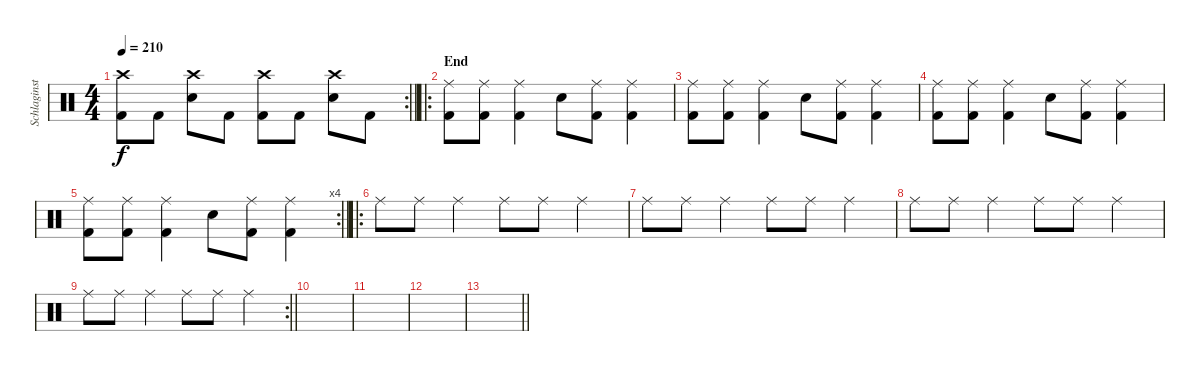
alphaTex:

\track ("Schlaginstrumente - Auswahl" "Schlaginst") {instrument percussion}
\staff {score}
\articulation defaults
\rc 2
\ts (4 4)
\tempo 210
\clef neutral
\barLineRight lightlight
\ks c
("Crash high (hit)" "Kick (hit) 2").8{dy f} "Kick (hit) 2".8 ("Crash high (hit)" "Snare (hit) 2").8 "Kick (hit) 2".8 ("Crash high (hit)" "Kick (hit) 2").8 "Kick (hit) 2".8 ("Crash high (hit)" "Snare (hit) 2").8 "Kick (hit) 2".8 |
\ro
\section ("" "End")
("Ride (middle)" "Kick (hit) 2").8 ("Ride (middle)" "Kick (hit) 2").8 ("Ride (middle)" "Kick (hit) 2").4 "Snare (hit) 2".8 ("Ride (middle)" "Kick (hit) 2").8 ("Ride (middle)" "Kick (hit) 2").4 |
("Ride (middle)" "Kick (hit) 2").8 ("Ride (middle)" "Kick (hit) 2").8 ("Ride (middle)" "Kick (hit) 2").4 "Snare (hit) 2".8 ("Ride (middle)" "Kick (hit) 2").8 ("Ride (middle)" "Kick (hit) 2").4 |
("Ride (middle)" "Kick (hit) 2").8 ("Ride (middle)" "Kick (hit) 2").8 ("Ride (middle)" "Kick (hit) 2").4 "Snare (hit) 2".8 ("Ride (middle)" "Kick (hit) 2").8 ("Ride (middle)" "Kick (hit) 2").4 |
\rc 4
\barLineRight lightlight
("Ride (middle)" "Kick (hit) 2").8 ("Ride (middle)" "Kick (hit) 2").8 ("Ride (middle)" "Kick (hit) 2").4 "Snare (hit) 2".8 ("Ride (middle)" "Kick (hit) 2").8 ("Ride (middle)" "Kick (hit) 2").4 |
\ro "Ride (middle)".8 "Ride (middle)".8 "Ride (middle)".4 "Ride (middle)".8 "Ride (middle)".8 "Ride (middle)".4
|
"Ride (middle)".8 "Ride (middle)".8 "Ride (middle)".4 "Ride (middle)".8 "Ride (middle)".8 "Ride (middle)".4 |
"Ride (middle)".8 "Ride (middle)".8 "Ride (middle)".4 "Ride (middle)".8 "Ride (middle)".8 "Ride (middle)".4 |
\rc 2
\barLineRight lightlight "Ride (middle)".8 "Ride (middle)".8 "Ride (middle)".4 "Ride (middle)".8 "Ride (middle)".8 "Ride (middle)".4
|
|
|
|
\barLineRight lightlight
